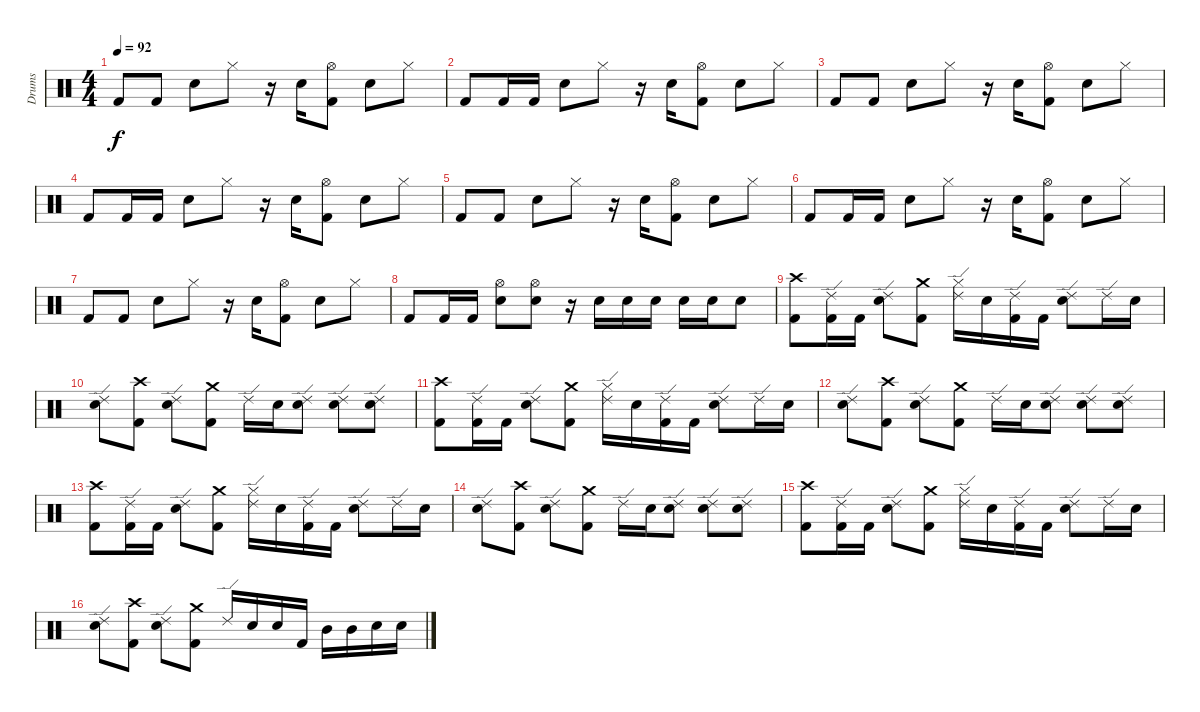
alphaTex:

\track ("Drums" "Drums") {instrument percussion}
\staff {score}
\articulation defaults
\ts (4 4)
\tempo 92
\clef neutral
\ks c "Kick (hit) 2".8{dy f} "Kick (hit) 2".8 "Snare (hit) 2".8 "Hi-Hat (closed)".8
r.16 "Snare (hit) 2".16 ("Hi-Hat (open)" "Kick (hit) 2").8 "Snare (hit) 2".8 "Hi-Hat (closed)".8 |
"Kick (hit) 2".8 "Kick (hit) 2".16 "Kick (hit) 2".16 "Snare (hit) 2".8 "Hi-Hat (closed)".8 r.16 "Snare (hit) 2".16 ("Hi-Hat (open)" "Kick (hit) 2").8 "Snare (hit) 2".8 "Hi-Hat (closed)".8 |
"Kick (hit) 2".8 "Kick (hit) 2".8 "Snare (hit) 2".8 "Hi-Hat (closed)".8 r.16 "Snare (hit) 2".16 ("Hi-Hat (open)" "Kick (hit) 2").8 "Snare (hit) 2".8 "Hi-Hat (closed)".8 |
"Kick (hit) 2".8 "Kick (hit) 2".16 "Kick (hit) 2".16 "Snare (hit) 2".8 "Hi-Hat (closed)".8 r.16 "Snare (hit) 2".16 ("Hi-Hat (open)" "Kick (hit) 2").8 "Snare (hit) 2".8 "Hi-Hat (closed)".8 |
"Kick (hit) 2".8 "Kick (hit) 2".8 "Snare (hit) 2".8 "Hi-Hat (closed)".8 r.16 "Snare (hit) 2".16 ("Hi-Hat (open)" "Kick (hit) 2").8 "Snare (hit) 2".8 "Hi-Hat (closed)".8 |
"Kick (hit) 2".8 "Kick (hit) 2".16 "Kick (hit) 2".16 "Snare (hit) 2".8 "Hi-Hat (closed)".8 r.16 "Snare (hit) 2".16 ("Hi-Hat (open)" "Kick (hit) 2").8 "Snare (hit) 2".8 "Hi-Hat (closed)".8 |
"Kick (hit) 2".8 "Kick (hit) 2".8 "Snare (hit) 2".8 "Hi-Hat (closed)".8 r.16 "Snare (hit) 2".16 ("Hi-Hat (open)" "Kick (hit) 2").8 "Snare (hit) 2".8 "Hi-Hat (closed)".8 |
"Kick (hit) 2".8 "Kick (hit) 2".16 "Kick (hit) 2".16 ("Hi-Hat (open)" "Snare (hit) 2").8 ("Hi-Hat (open)" "Snare (hit) 2").8 r.16 "Snare (hit) 2".16 "Snare (hit) 2".16 "Snare (hit) 2".16 "Snare (hit) 2".16 "Snare (hit) 2".16 "Snare (hit) 2".8 |
("Crash high (hit)" "Kick (hit) 2").8 ("Ride (edge) 2" "Kick (hit) 2").16 "Kick (hit) 2".16 ("Ride (edge) 2" "Snare (hit) 2").8 ("Crash medium (hit)" "Kick (hit) 2").8 ("Ride (edge) 2" "Hi-Hat (closed)").16 "Snare (hit) 2".16 ("Ride (edge) 2" "Kick (hit) 2").16 "Kick (hit) 2".16 ("Ride (edge) 2" "Snare (hit) 2").8 "Ride (edge) 2".16 "Snare (hit) 2".16 |
("Ride (edge) 2" "Snare (hit) 2").8 ("Crash high (hit)" "Kick (hit) 2").8 ("Ride (edge) 2" "Snare (hit) 2").8 ("Crash medium (hit)" "Kick (hit) 2").8 "Ride (edge) 2".16 "Snare (hit) 2".16 ("Ride (edge) 2" "Snare (hit) 2").8 ("Ride (edge) 2" "Snare (hit) 2").8 ("Ride (edge) 2" "Snare (hit) 2").8 |
("Crash high (hit)" "Kick (hit) 2").8 ("Ride (edge) 2" "Kick (hit) 2").16 "Kick (hit) 2".16 ("Ride (edge) 2" "Snare (hit) 2").8 ("Crash medium (hit)" "Kick (hit) 2").8 ("Ride (edge) 2" "Hi-Hat (closed)").16 "Snare (hit) 2".16 ("Ride (edge) 2" "Kick (hit) 2").16 "Kick (hit) 2".16 ("Ride (edge) 2" "Snare (hit) 2").8 "Ride (edge) 2".16 "Snare (hit) 2".16 |
("Ride (edge) 2" "Snare (hit) 2").8 ("Crash high (hit)" "Kick (hit) 2").8 ("Ride (edge) 2" "Snare (hit) 2").8 ("Crash medium (hit)" "Kick (hit) 2").8 "Ride (edge) 2".16 "Snare (hit) 2".16 ("Ride (edge) 2" "Snare (hit) 2").8 ("Ride (edge) 2" "Snare (hit) 2").8 ("Ride (edge) 2" "Snare (hit) 2").8 |
("Crash high (hit)" "Kick (hit) 2").8 ("Ride (edge) 2" "Kick (hit) 2").16 "Kick (hit) 2".16 ("Ride (edge) 2" "Snare (hit) 2").8 ("Crash medium (hit)" "Kick (hit) 2").8 ("Ride (edge) 2" "Hi-Hat (closed)").16 "Snare (hit) 2".16 ("Ride (edge) 2" "Kick (hit) 2").16 "Kick (hit) 2".16 ("Ride (edge) 2" "Snare (hit) 2").8 "Ride (edge) 2".16 "Snare (hit) 2".16 |
("Ride (edge) 2" "Snare (hit) 2").8 ("Crash high (hit)" "Kick (hit) 2").8 ("Ride (edge) 2" "Snare (hit) 2").8 ("Crash medium (hit)" "Kick (hit) 2").8 "Ride (edge) 2".16 "Snare (hit) 2".16 ("Ride (edge) 2" "Snare (hit) 2").8 ("Ride (edge) 2" "Snare (hit) 2").8 ("Ride (edge) 2" "Snare (hit) 2").8 |
("Crash high (hit)" "Kick (hit) 2").8 ("Ride (edge) 2" "Kick (hit) 2").16 "Kick (hit) 2".16 ("Ride (edge) 2" "Snare (hit) 2").8 ("Crash medium (hit)" "Kick (hit) 2").8 ("Ride (edge) 2" "Hi-Hat (closed)").16 "Snare (hit) 2".16 ("Ride (edge) 2" "Kick (hit) 2").16 "Kick (hit) 2".16 ("Ride (edge) 2" "Snare (hit) 2").8 "Ride (edge) 2".16 "Snare (hit) 2".16 |
("Ride (edge) 2" "Snare (hit) 2").8 ("Crash high (hit)" "Kick (hit) 2").8 ("Ride (edge) 2" "Snare (hit) 2").8 ("Crash medium (hit)" "Kick (hit) 2").8 "Ride (edge) 2".16 "Snare (hit) 2".16 "Snare (hit) 2".16 "Kick (hit) 2".16 "Mid Tom (hit)".16 "Mid Tom (hit)".16 "Snare (hit) 2".16 "Snare (hit) 2".16
